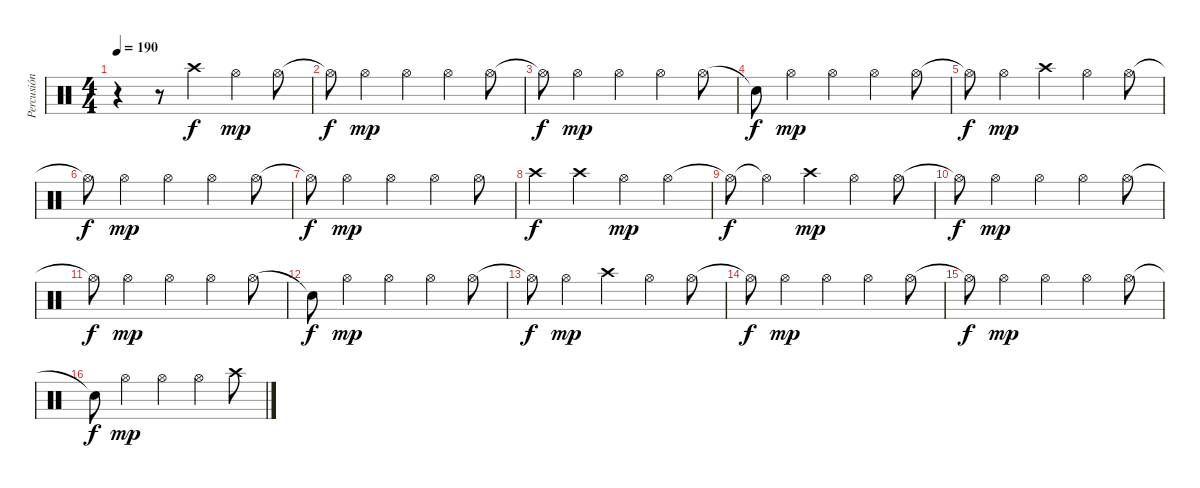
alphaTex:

\track ("Percusión" "Percusión") {instrument percussion}
\staff {score}
\articulation defaults
\ts (4 4)
\tempo 190
\clef neutral
\ks c
r.4{dy mp} r.8 "Crash high (hit)".4{dy f} "Hi-Hat (open)".4{dy mp} "Hi-Hat (open)".8 |
"Hi-Hat (open)"{t}.8{dy f} "Hi-Hat (open)".4{dy mp} "Hi-Hat (open)".4 "Hi-Hat (open)".4 "Hi-Hat (open)".8 |
"Hi-Hat (open)"{t}.8{dy f} "Hi-Hat (open)".4{dy mp} "Hi-Hat (open)".4 "Hi-Hat (open)".4 "Hi-Hat (open)".8 |
"Snare (hit)"{t}.8{dy f} "Hi-Hat (open)".4{dy mp} "Hi-Hat (open)".4 "Hi-Hat (open)".4 "Hi-Hat (open)".8 |
"Hi-Hat (open)"{t}.8{dy f} "Hi-Hat (open)".4{dy mp} "Crash high (hit)".4 "Hi-Hat (open)".4 "Hi-Hat (open)".8 |
"Hi-Hat (open)"{t}.8{dy f} "Hi-Hat (open)".4{dy mp} "Hi-Hat (open)".4 "Hi-Hat (open)".4 "Hi-Hat (open)".8 |
"Hi-Hat (open)"{t}.8{dy f} "Hi-Hat (open)".4{dy mp} "Hi-Hat (open)".4 "Hi-Hat (open)".4 "Hi-Hat (open)".8 |
"Crash high (hit)".4{dy f} "Crash high (hit)".4 "Hi-Hat (open)".4{dy mp} "Hi-Hat (open)".4 |
"Hi-Hat (open)"{t}.8{dy f} "Hi-Hat (open)"{t}.4 "Crash high (hit)".4{dy mp} "Hi-Hat (open)".4 "Hi-Hat (open)".8 |
"Hi-Hat (open)"{t}.8{dy f} "Hi-Hat (open)".4{dy mp} "Hi-Hat (open)".4 "Hi-Hat (open)".4 "Hi-Hat (open)".8 |
"Hi-Hat (open)"{t}.8{dy f} "Hi-Hat (open)".4{dy mp} "Hi-Hat (open)".4 "Hi-Hat (open)".4 "Hi-Hat (open)".8 |
"Snare (hit)"{t}.8{dy f} "Hi-Hat (open)".4{dy mp} "Hi-Hat (open)".4 "Hi-Hat (open)".4 "Hi-Hat (open)".8 |
"Hi-Hat (open)"{t}.8{dy f} "Hi-Hat (open)".4{dy mp} "Crash high (hit)".4 "Hi-Hat (open)".4 "Hi-Hat (open)".8 |
"Hi-Hat (open)"{t}.8{dy f} "Hi-Hat (open)".4{dy mp} "Hi-Hat (open)".4 "Hi-Hat (open)".4 "Hi-Hat (open)".8 |
"Hi-Hat (open)"{t}.8{dy f} "Hi-Hat (open)".4{dy mp} "Hi-Hat (open)".4 "Hi-Hat (open)".4 "Hi-Hat (open)".8 |
"Snare (hit)"{t}.8{dy f} "Hi-Hat (open)".4{dy mp} "Hi-Hat (open)".4 "Hi-Hat (open)".4 "Crash high (hit)".8
